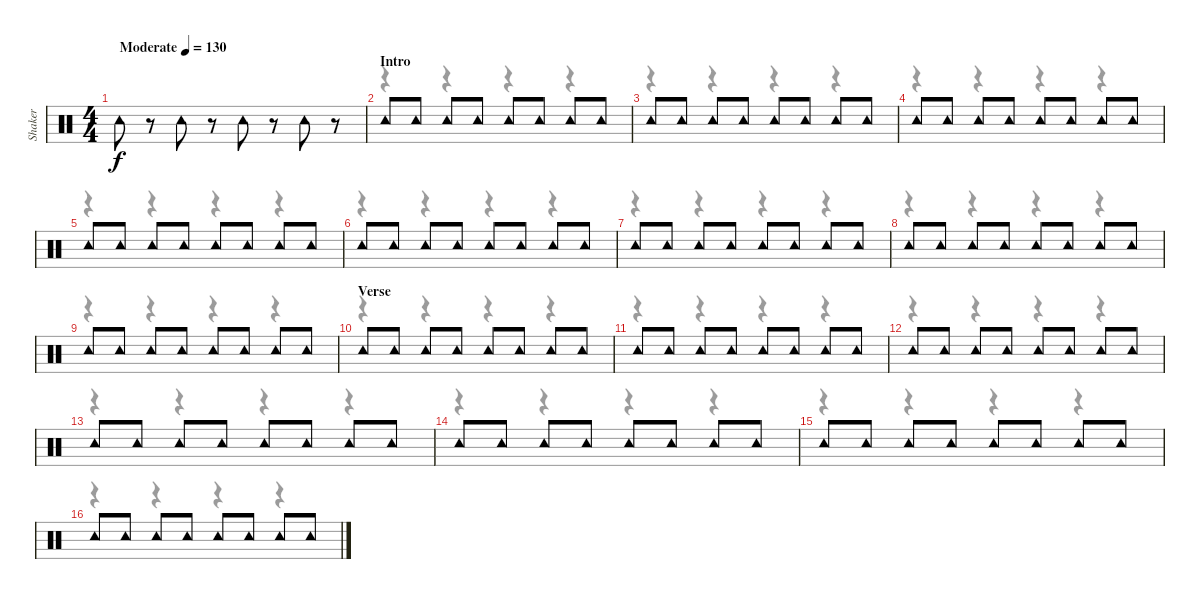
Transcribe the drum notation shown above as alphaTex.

\track ("Shaker" "Shaker") {instrument percussion}
\staff {score}
\articulation defaults
\voice
\ts (4 4)
\tempo (130 "Moderate")
\clef neutral
\ks c "Tambourine (hit)".8{dy f}
r.8 "Tambourine (hit)".8 r.8 "Tambourine (hit)".8 r.8 "Tambourine (hit)".8 r.8 |
\section ("" "Intro")
"Tambourine (hit)".8 "Tambourine (hit)".8 "Tambourine (hit)".8 "Tambourine (hit)".8 "Tambourine (hit)".8 "Tambourine (hit)".8 "Tambourine (hit)".8 "Tambourine (hit)".8 |
"Tambourine (hit)".8 "Tambourine (hit)".8 "Tambourine (hit)".8 "Tambourine (hit)".8 "Tambourine (hit)".8 "Tambourine (hit)".8 "Tambourine (hit)".8 "Tambourine (hit)".8 |
"Tambourine (hit)".8 "Tambourine (hit)".8 "Tambourine (hit)".8 "Tambourine (hit)".8 "Tambourine (hit)".8 "Tambourine (hit)".8 "Tambourine (hit)".8 "Tambourine (hit)".8 |
"Tambourine (hit)".8 "Tambourine (hit)".8 "Tambourine (hit)".8 "Tambourine (hit)".8 "Tambourine (hit)".8 "Tambourine (hit)".8 "Tambourine (hit)".8 "Tambourine (hit)".8 |
"Tambourine (hit)".8 "Tambourine (hit)".8 "Tambourine (hit)".8 "Tambourine (hit)".8 "Tambourine (hit)".8 "Tambourine (hit)".8 "Tambourine (hit)".8 "Tambourine (hit)".8 |
"Tambourine (hit)".8 "Tambourine (hit)".8 "Tambourine (hit)".8 "Tambourine (hit)".8 "Tambourine (hit)".8 "Tambourine (hit)".8 "Tambourine (hit)".8 "Tambourine (hit)".8 |
"Tambourine (hit)".8 "Tambourine (hit)".8 "Tambourine (hit)".8 "Tambourine (hit)".8 "Tambourine (hit)".8 "Tambourine (hit)".8 "Tambourine (hit)".8 "Tambourine (hit)".8 |
"Tambourine (hit)".8 "Tambourine (hit)".8 "Tambourine (hit)".8 "Tambourine (hit)".8 "Tambourine (hit)".8 "Tambourine (hit)".8 "Tambourine (hit)".8 "Tambourine (hit)".8 |
\section ("" "Verse")
"Tambourine (hit)".8 "Tambourine (hit)".8 "Tambourine (hit)".8 "Tambourine (hit)".8 "Tambourine (hit)".8 "Tambourine (hit)".8 "Tambourine (hit)".8 "Tambourine (hit)".8 |
"Tambourine (hit)".8 "Tambourine (hit)".8 "Tambourine (hit)".8 "Tambourine (hit)".8 "Tambourine (hit)".8 "Tambourine (hit)".8 "Tambourine (hit)".8 "Tambourine (hit)".8 |
"Tambourine (hit)".8 "Tambourine (hit)".8 "Tambourine (hit)".8 "Tambourine (hit)".8 "Tambourine (hit)".8 "Tambourine (hit)".8 "Tambourine (hit)".8 "Tambourine (hit)".8 |
"Tambourine (hit)".8 "Tambourine (hit)".8 "Tambourine (hit)".8 "Tambourine (hit)".8 "Tambourine (hit)".8 "Tambourine (hit)".8 "Tambourine (hit)".8 "Tambourine (hit)".8 |
"Tambourine (hit)".8 "Tambourine (hit)".8 "Tambourine (hit)".8 "Tambourine (hit)".8 "Tambourine (hit)".8 "Tambourine (hit)".8 "Tambourine (hit)".8 "Tambourine (hit)".8 |
"Tambourine (hit)".8 "Tambourine (hit)".8 "Tambourine (hit)".8 "Tambourine (hit)".8 "Tambourine (hit)".8 "Tambourine (hit)".8 "Tambourine (hit)".8 "Tambourine (hit)".8 |
"Tambourine (hit)".8 "Tambourine (hit)".8 "Tambourine (hit)".8 "Tambourine (hit)".8 "Tambourine (hit)".8 "Tambourine (hit)".8 "Tambourine (hit)".8 "Tambourine (hit)".8
\voice
\clef neutral
\ottava regular
\simile none
\ks c
|
r.4 r.4 r.4 r.4 |
r.4 r.4 r.4 r.4 |
r.4 r.4 r.4 r.4 |
r.4 r.4 r.4 r.4 |
r.4 r.4 r.4 r.4 |
r.4 r.4 r.4 r.4 |
r.4 r.4 r.4 r.4 |
r.4 r.4 r.4 r.4 |
r.4 r.4 r.4 r.4 |
r.4 r.4 r.4 r.4 |
r.4 r.4 r.4 r.4 |
r.4 r.4 r.4 r.4 |
r.4 r.4 r.4 r.4 |
r.4 r.4 r.4 r.4 |
r.4 r.4 r.4 r.4
